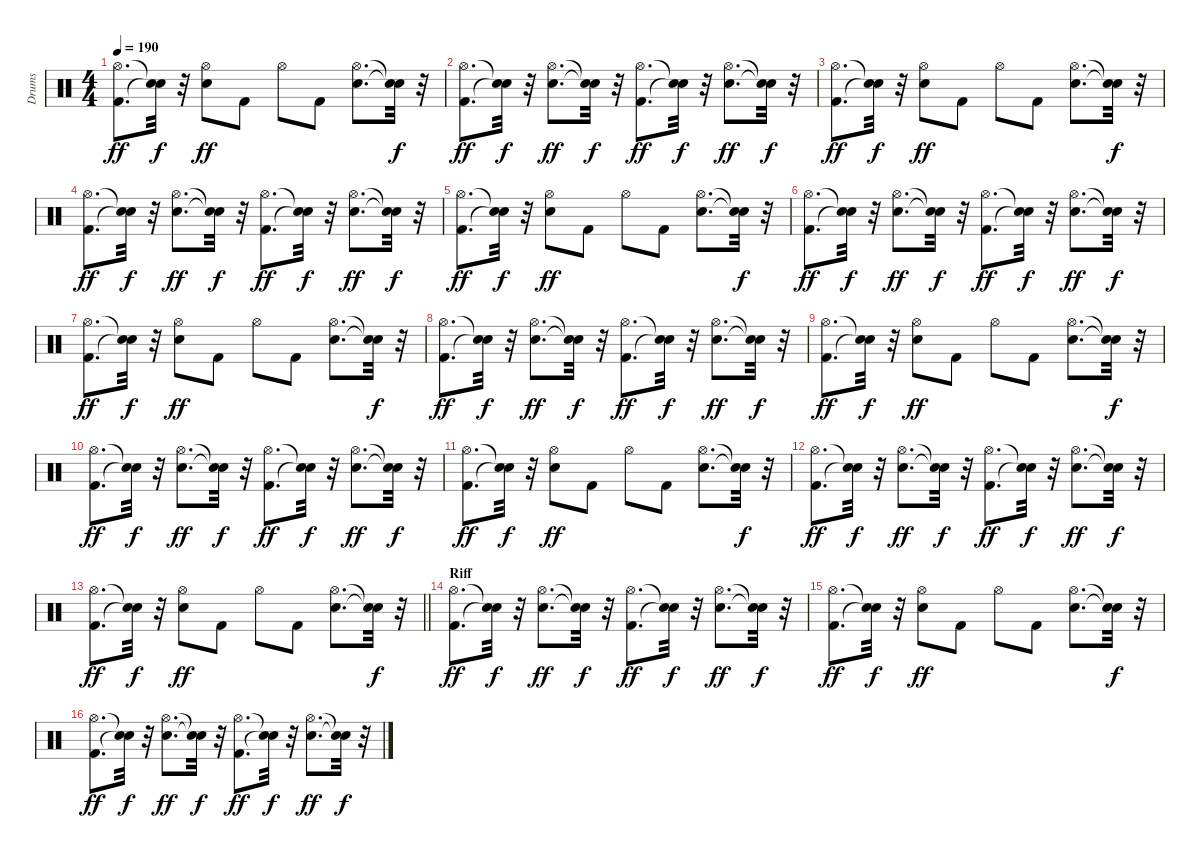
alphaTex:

\track ("Drums" "Drums") {instrument percussion}
\staff {score}
\articulation defaults
\ts (4 4)
\tempo 190
\clef neutral
\ks c
("Kick (hit) 2" "Hi-Hat (open)").8{d dy ff} ("Snare (hit)"{t} "Snare (hit)"{t}).32{dy f} r.32 ("Snare (hit) 2" "Hi-Hat (open)").8{dy ff} "Kick (hit) 2".8 "Hi-Hat (open)".8 "Kick (hit) 2".8 ("Snare (hit) 2" "Hi-Hat (open)").8{d} ("Snare (hit)"{t} "Snare (hit)"{t}).32{dy f} r.32 |
("Kick (hit) 2" "Hi-Hat (open)").8{d dy ff} ("Snare (hit)"{t} "Snare (hit)"{t}).32{dy f} r.32 ("Snare (hit) 2" "Hi-Hat (open)").8{d dy ff} ("Snare (hit)"{t} "Snare (hit)"{t}).32{dy f} r.32 ("Kick (hit) 2" "Hi-Hat (open)").8{d dy ff} ("Snare (hit)"{t} "Snare (hit)"{t}).32{dy f} r.32 ("Snare (hit) 2" "Hi-Hat (open)").8{d dy ff} ("Snare (hit)"{t} "Snare (hit)"{t}).32{dy f} r.32 |
("Kick (hit) 2" "Hi-Hat (open)").8{d dy ff} ("Snare (hit)"{t} "Snare (hit)"{t}).32{dy f} r.32 ("Snare (hit) 2" "Hi-Hat (open)").8{dy ff} "Kick (hit) 2".8 "Hi-Hat (open)".8 "Kick (hit) 2".8 ("Snare (hit) 2" "Hi-Hat (open)").8{d} ("Snare (hit)"{t} "Snare (hit)"{t}).32{dy f} r.32 |
("Kick (hit) 2" "Hi-Hat (open)").8{d dy ff} ("Snare (hit)"{t} "Snare (hit)"{t}).32{dy f} r.32 ("Snare (hit) 2" "Hi-Hat (open)").8{d dy ff} ("Snare (hit)"{t} "Snare (hit)"{t}).32{dy f} r.32 ("Kick (hit) 2" "Hi-Hat (open)").8{d dy ff} ("Snare (hit)"{t} "Snare (hit)"{t}).32{dy f} r.32 ("Snare (hit) 2" "Hi-Hat (open)").8{d dy ff} ("Snare (hit)"{t} "Snare (hit)"{t}).32{dy f} r.32 |
("Kick (hit) 2" "Hi-Hat (open)").8{d dy ff} ("Snare (hit)"{t} "Snare (hit)"{t}).32{dy f} r.32 ("Snare (hit) 2" "Hi-Hat (open)").8{dy ff} "Kick (hit) 2".8 "Hi-Hat (open)".8 "Kick (hit) 2".8 ("Snare (hit) 2" "Hi-Hat (open)").8{d} ("Snare (hit)"{t} "Snare (hit)"{t}).32{dy f} r.32 |
("Kick (hit) 2" "Hi-Hat (open)").8{d dy ff} ("Snare (hit)"{t} "Snare (hit)"{t}).32{dy f} r.32 ("Snare (hit) 2" "Hi-Hat (open)").8{d dy ff} ("Snare (hit)"{t} "Snare (hit)"{t}).32{dy f} r.32 ("Kick (hit) 2" "Hi-Hat (open)").8{d dy ff} ("Snare (hit)"{t} "Snare (hit)"{t}).32{dy f} r.32 ("Snare (hit) 2" "Hi-Hat (open)").8{d dy ff} ("Snare (hit)"{t} "Snare (hit)"{t}).32{dy f} r.32 |
("Kick (hit) 2" "Hi-Hat (open)").8{d dy ff} ("Snare (hit)"{t} "Snare (hit)"{t}).32{dy f} r.32 ("Snare (hit) 2" "Hi-Hat (open)").8{dy ff} "Kick (hit) 2".8 "Hi-Hat (open)".8 "Kick (hit) 2".8 ("Snare (hit) 2" "Hi-Hat (open)").8{d} ("Snare (hit)"{t} "Snare (hit)"{t}).32{dy f} r.32 |
("Kick (hit) 2" "Hi-Hat (open)").8{d dy ff} ("Snare (hit)"{t} "Snare (hit)"{t}).32{dy f} r.32 ("Snare (hit) 2" "Hi-Hat (open)").8{d dy ff} ("Snare (hit)"{t} "Snare (hit)"{t}).32{dy f} r.32 ("Kick (hit) 2" "Hi-Hat (open)").8{d dy ff} ("Snare (hit)"{t} "Snare (hit)"{t}).32{dy f} r.32 ("Snare (hit) 2" "Hi-Hat (open)").8{d dy ff} ("Snare (hit)"{t} "Snare (hit)"{t}).32{dy f} r.32 |
("Kick (hit) 2" "Hi-Hat (open)").8{d dy ff} ("Snare (hit)"{t} "Snare (hit)"{t}).32{dy f} r.32 ("Snare (hit) 2" "Hi-Hat (open)").8{dy ff} "Kick (hit) 2".8 "Hi-Hat (open)".8 "Kick (hit) 2".8 ("Snare (hit) 2" "Hi-Hat (open)").8{d} ("Snare (hit)"{t} "Snare (hit)"{t}).32{dy f} r.32 |
("Kick (hit) 2" "Hi-Hat (open)").8{d dy ff} ("Snare (hit)"{t} "Snare (hit)"{t}).32{dy f} r.32 ("Snare (hit) 2" "Hi-Hat (open)").8{d dy ff} ("Snare (hit)"{t} "Snare (hit)"{t}).32{dy f} r.32 ("Kick (hit) 2" "Hi-Hat (open)").8{d dy ff} ("Snare (hit)"{t} "Snare (hit)"{t}).32{dy f} r.32 ("Snare (hit) 2" "Hi-Hat (open)").8{d dy ff} ("Snare (hit)"{t} "Snare (hit)"{t}).32{dy f} r.32 |
("Kick (hit) 2" "Hi-Hat (open)").8{d dy ff} ("Snare (hit)"{t} "Snare (hit)"{t}).32{dy f} r.32 ("Snare (hit) 2" "Hi-Hat (open)").8{dy ff} "Kick (hit) 2".8 "Hi-Hat (open)".8 "Kick (hit) 2".8 ("Snare (hit) 2" "Hi-Hat (open)").8{d} ("Snare (hit)"{t} "Snare (hit)"{t}).32{dy f} r.32 |
("Kick (hit) 2" "Hi-Hat (open)").8{d dy ff} ("Snare (hit)"{t} "Snare (hit)"{t}).32{dy f} r.32 ("Snare (hit) 2" "Hi-Hat (open)").8{d dy ff} ("Snare (hit)"{t} "Snare (hit)"{t}).32{dy f} r.32 ("Kick (hit) 2" "Hi-Hat (open)").8{d dy ff} ("Snare (hit)"{t} "Snare (hit)"{t}).32{dy f} r.32 ("Snare (hit) 2" "Hi-Hat (open)").8{d dy ff} ("Snare (hit)"{t} "Snare (hit)"{t}).32{dy f} r.32 |
\barLineRight lightlight
("Kick (hit) 2" "Hi-Hat (open)").8{d dy ff} ("Snare (hit)"{t} "Snare (hit)"{t}).32{dy f} r.32 ("Snare (hit) 2" "Hi-Hat (open)").8{dy ff} "Kick (hit) 2".8 "Hi-Hat (open)".8 "Kick (hit) 2".8 ("Snare (hit) 2" "Hi-Hat (open)").8{d} ("Snare (hit)"{t} "Snare (hit)"{t}).32{dy f} r.32 |
\section ("" "Riff")
("Kick (hit) 2" "Hi-Hat (open)").8{d dy ff} ("Snare (hit)"{t} "Snare (hit)"{t}).32{dy f} r.32 ("Snare (hit) 2" "Hi-Hat (open)").8{d dy ff} ("Snare (hit)"{t} "Snare (hit)"{t}).32{dy f} r.32 ("Kick (hit) 2" "Hi-Hat (open)").8{d dy ff} ("Snare (hit)"{t} "Snare (hit)"{t}).32{dy f} r.32 ("Snare (hit) 2" "Hi-Hat (open)").8{d dy ff} ("Snare (hit)"{t} "Snare (hit)"{t}).32{dy f} r.32 |
("Kick (hit) 2" "Hi-Hat (open)").8{d dy ff} ("Snare (hit)"{t} "Snare (hit)"{t}).32{dy f} r.32 ("Snare (hit) 2" "Hi-Hat (open)").8{dy ff} "Kick (hit) 2".8 "Hi-Hat (open)".8 "Kick (hit) 2".8 ("Snare (hit) 2" "Hi-Hat (open)").8{d} ("Snare (hit)"{t} "Snare (hit)"{t}).32{dy f} r.32 |
("Kick (hit) 2" "Hi-Hat (open)").8{d dy ff} ("Snare (hit)"{t} "Snare (hit)"{t}).32{dy f} r.32 ("Snare (hit) 2" "Hi-Hat (open)").8{d dy ff} ("Snare (hit)"{t} "Snare (hit)"{t}).32{dy f} r.32 ("Kick (hit) 2" "Hi-Hat (open)").8{d dy ff} ("Snare (hit)"{t} "Snare (hit)"{t}).32{dy f} r.32 ("Snare (hit) 2" "Hi-Hat (open)").8{d dy ff} ("Snare (hit)"{t} "Snare (hit)"{t}).32{dy f} r.32
